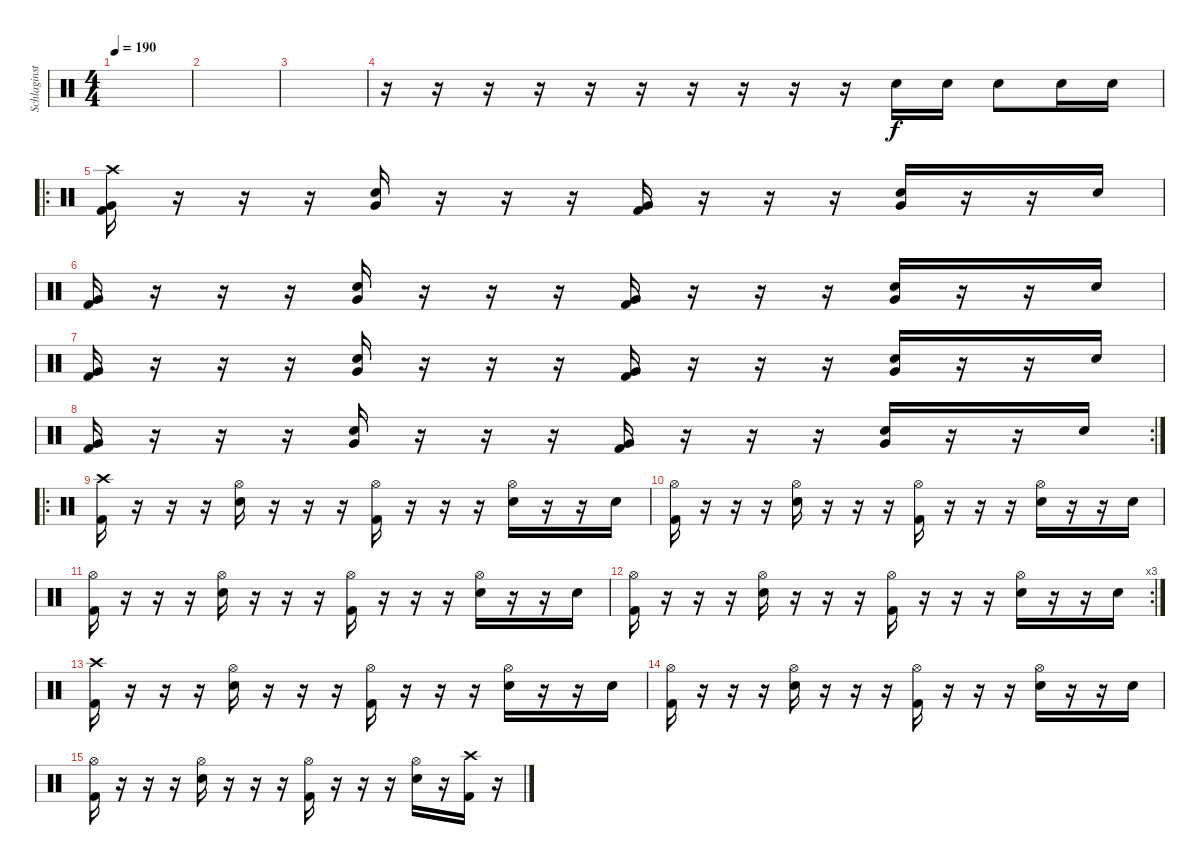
\track ("Schlaginstrumente - Auswahl" "Schlaginst") {instrument percussion}
\staff {score}
\articulation defaults
\ts (4 4)
\tempo 190
\clef neutral
\ks c
|
|
|
r.16 r.16 r.16 r.16 r.16 r.16 r.16 r.16 r.16 r.16 "Electric Snare (hit)".16 "Electric Snare (hit)".16 "Electric Snare (hit)".8 "Electric Snare (hit)".16 "Electric Snare (hit)".16 |
\ro
("Crash high (hit)" "Very Low Tom (hit)" "Kick (hit) 2").16 r.16 r.16 r.16 ("Very Low Tom (hit)" "Electric Snare (hit)").16 r.16 r.16 r.16 ("Very Low Tom (hit)" "Kick (hit) 2").16 r.16 r.16 r.16 ("Very Low Tom (hit)" "Electric Snare (hit)").16 r.16 r.16 "Electric Snare (hit)".16 |
("Very Low Tom (hit)" "Kick (hit) 2").16 r.16 r.16 r.16 ("Very Low Tom (hit)" "Electric Snare (hit)").16 r.16 r.16 r.16 ("Very Low Tom (hit)" "Kick (hit) 2").16 r.16 r.16 r.16 ("Very Low Tom (hit)" "Electric Snare (hit)").16 r.16 r.16 "Electric Snare (hit)".16 |
("Very Low Tom (hit)" "Kick (hit) 2").16 r.16 r.16 r.16 ("Very Low Tom (hit)" "Electric Snare (hit)").16 r.16 r.16 r.16 ("Very Low Tom (hit)" "Kick (hit) 2").16 r.16 r.16 r.16 ("Very Low Tom (hit)" "Electric Snare (hit)").16 r.16 r.16 "Electric Snare (hit)".16 |
\rc 2
("Very Low Tom (hit)" "Kick (hit) 2").16 r.16 r.16 r.16 ("Very Low Tom (hit)" "Electric Snare (hit)").16 r.16 r.16 r.16 ("Very Low Tom (hit)" "Kick (hit) 2").16 r.16 r.16 r.16 ("Very Low Tom (hit)" "Electric Snare (hit)").16 r.16 r.16 "Electric Snare (hit)".16 |
\ro
("Crash high (hit)" "Kick (hit) 2").16 r.16 r.16 r.16 ("Hi-Hat (open)" "Electric Snare (hit)").16 r.16 r.16 r.16 ("Hi-Hat (open)" "Kick (hit) 2").16 r.16 r.16 r.16 ("Hi-Hat (open)" "Electric Snare (hit)").16 r.16 r.16 "Electric Snare (hit)".16 |
("Hi-Hat (open)" "Kick (hit) 2").16 r.16 r.16 r.16 ("Hi-Hat (open)" "Electric Snare (hit)").16 r.16 r.16 r.16 ("Hi-Hat (open)" "Kick (hit) 2").16 r.16 r.16 r.16 ("Hi-Hat (open)" "Electric Snare (hit)").16 r.16 r.16 "Electric Snare (hit)".16 |
("Hi-Hat (open)" "Kick (hit) 2").16 r.16 r.16 r.16 ("Hi-Hat (open)" "Electric Snare (hit)").16 r.16 r.16 r.16 ("Hi-Hat (open)" "Kick (hit) 2").16 r.16 r.16 r.16 ("Hi-Hat (open)" "Electric Snare (hit)").16 r.16 r.16 "Electric Snare (hit)".16 |
\rc 3
("Hi-Hat (open)" "Kick (hit) 2").16 r.16 r.16 r.16 ("Hi-Hat (open)" "Electric Snare (hit)").16 r.16 r.16 r.16 ("Hi-Hat (open)" "Kick (hit) 2").16 r.16 r.16 r.16 ("Hi-Hat (open)" "Electric Snare (hit)").16 r.16 r.16 "Electric Snare (hit)".16 |
("Crash high (hit)" "Kick (hit) 2").16 r.16 r.16 r.16 ("Hi-Hat (open)" "Electric Snare (hit)").16 r.16 r.16 r.16 ("Hi-Hat (open)" "Kick (hit) 2").16 r.16 r.16 r.16 ("Hi-Hat (open)" "Electric Snare (hit)").16 r.16 r.16 "Electric Snare (hit)".16 |
("Hi-Hat (open)" "Kick (hit) 2").16 r.16 r.16 r.16 ("Hi-Hat (open)" "Electric Snare (hit)").16 r.16 r.16 r.16 ("Hi-Hat (open)" "Kick (hit) 2").16 r.16 r.16 r.16 ("Hi-Hat (open)" "Electric Snare (hit)").16 r.16 r.16 "Electric Snare (hit)".16 |
("Hi-Hat (open)" "Kick (hit) 2").16 r.16 r.16 r.16 ("Hi-Hat (open)" "Electric Snare (hit)").16 r.16 r.16 r.16 ("Hi-Hat (open)" "Kick (hit) 2").16 r.16 r.16 r.16 ("Hi-Hat (open)" "Electric Snare (hit)").16 r.16 ("Crash high (hit)" "Kick (hit) 2").16 r.16
